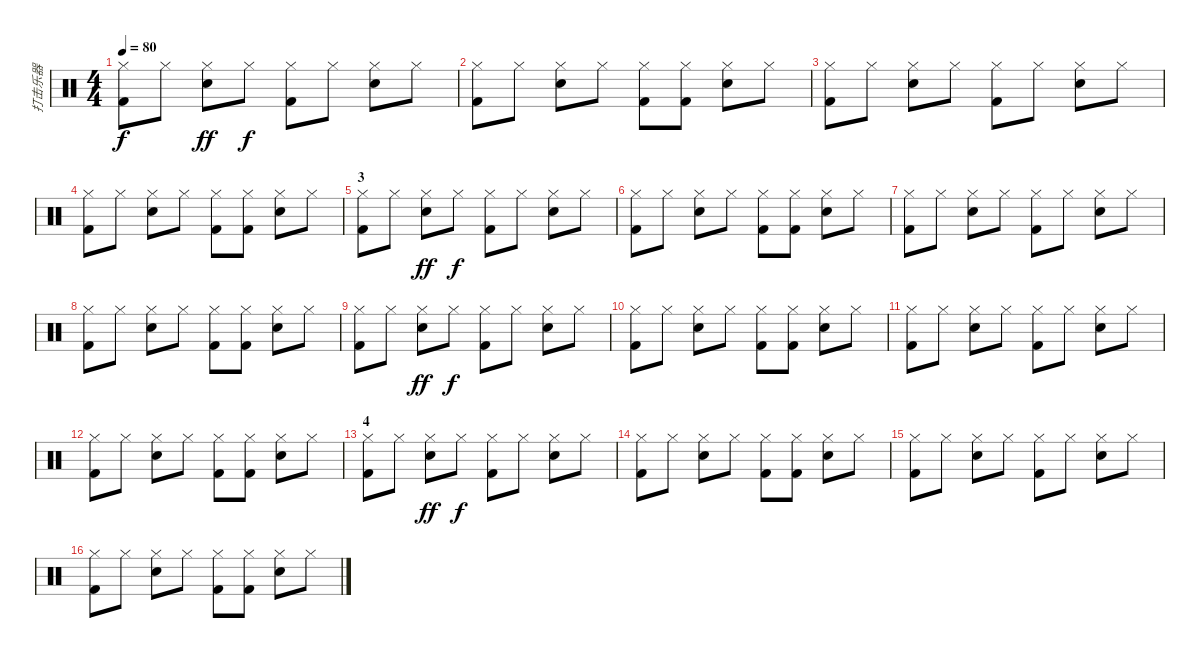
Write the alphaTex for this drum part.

\track ("打击乐器" "打击乐器") {instrument percussion}
\staff {score}
\articulation defaults
\ts (4 4)
\tempo 80
\clef neutral
\ks c
("Hi-Hat (closed)" "Kick (hit) 2").8{dy f} "Hi-Hat (closed)".8 ("Hi-Hat (closed)" "Snare (hit) 2").8{dy ff} "Hi-Hat (closed)".8{dy f} ("Hi-Hat (closed)" "Kick (hit) 2").8 "Hi-Hat (closed)".8 ("Hi-Hat (closed)" "Snare (hit) 2").8 "Hi-Hat (closed)".8 |
("Hi-Hat (closed)" "Kick (hit) 2").8 "Hi-Hat (closed)".8 ("Hi-Hat (closed)" "Snare (hit) 2").8 "Hi-Hat (closed)".8 ("Hi-Hat (closed)" "Kick (hit) 2").8 ("Hi-Hat (closed)" "Kick (hit) 2").8 ("Hi-Hat (closed)" "Snare (hit) 2").8 "Hi-Hat (closed)".8 |
("Hi-Hat (closed)" "Kick (hit) 2").8 "Hi-Hat (closed)".8 ("Hi-Hat (closed)" "Snare (hit) 2").8 "Hi-Hat (closed)".8 ("Hi-Hat (closed)" "Kick (hit) 2").8 "Hi-Hat (closed)".8 ("Hi-Hat (closed)" "Snare (hit) 2").8 "Hi-Hat (closed)".8 |
("Hi-Hat (closed)" "Kick (hit) 2").8 "Hi-Hat (closed)".8 ("Hi-Hat (closed)" "Snare (hit) 2").8 "Hi-Hat (closed)".8 ("Hi-Hat (closed)" "Kick (hit) 2").8 ("Hi-Hat (closed)" "Kick (hit) 2").8 ("Hi-Hat (closed)" "Snare (hit) 2").8 "Hi-Hat (closed)".8 |
\section ("" "3")
("Hi-Hat (closed)" "Kick (hit) 2").8 "Hi-Hat (closed)".8 ("Hi-Hat (closed)" "Snare (hit) 2").8{dy ff} "Hi-Hat (closed)".8{dy f} ("Hi-Hat (closed)" "Kick (hit) 2").8 "Hi-Hat (closed)".8 ("Hi-Hat (closed)" "Snare (hit) 2").8 "Hi-Hat (closed)".8 |
("Hi-Hat (closed)" "Kick (hit) 2").8 "Hi-Hat (closed)".8 ("Hi-Hat (closed)" "Snare (hit) 2").8 "Hi-Hat (closed)".8 ("Hi-Hat (closed)" "Kick (hit) 2").8 ("Hi-Hat (closed)" "Kick (hit) 2").8 ("Hi-Hat (closed)" "Snare (hit) 2").8 "Hi-Hat (closed)".8 |
("Hi-Hat (closed)" "Kick (hit) 2").8 "Hi-Hat (closed)".8 ("Hi-Hat (closed)" "Snare (hit) 2").8 "Hi-Hat (closed)".8 ("Hi-Hat (closed)" "Kick (hit) 2").8 "Hi-Hat (closed)".8 ("Hi-Hat (closed)" "Snare (hit) 2").8 "Hi-Hat (closed)".8 |
("Hi-Hat (closed)" "Kick (hit) 2").8 "Hi-Hat (closed)".8 ("Hi-Hat (closed)" "Snare (hit) 2").8 "Hi-Hat (closed)".8 ("Hi-Hat (closed)" "Kick (hit) 2").8 ("Hi-Hat (closed)" "Kick (hit) 2").8 ("Hi-Hat (closed)" "Snare (hit) 2").8 "Hi-Hat (closed)".8 |
("Hi-Hat (closed)" "Kick (hit) 2").8 "Hi-Hat (closed)".8 ("Hi-Hat (closed)" "Snare (hit) 2").8{dy ff} "Hi-Hat (closed)".8{dy f} ("Hi-Hat (closed)" "Kick (hit) 2").8 "Hi-Hat (closed)".8 ("Hi-Hat (closed)" "Snare (hit) 2").8 "Hi-Hat (closed)".8 |
("Hi-Hat (closed)" "Kick (hit) 2").8 "Hi-Hat (closed)".8 ("Hi-Hat (closed)" "Snare (hit) 2").8 "Hi-Hat (closed)".8 ("Hi-Hat (closed)" "Kick (hit) 2").8 ("Hi-Hat (closed)" "Kick (hit) 2").8 ("Hi-Hat (closed)" "Snare (hit) 2").8 "Hi-Hat (closed)".8 |
("Hi-Hat (closed)" "Kick (hit) 2").8 "Hi-Hat (closed)".8 ("Hi-Hat (closed)" "Snare (hit) 2").8 "Hi-Hat (closed)".8 ("Hi-Hat (closed)" "Kick (hit) 2").8 "Hi-Hat (closed)".8 ("Hi-Hat (closed)" "Snare (hit) 2").8 "Hi-Hat (closed)".8 |
("Hi-Hat (closed)" "Kick (hit) 2").8 "Hi-Hat (closed)".8 ("Hi-Hat (closed)" "Snare (hit) 2").8 "Hi-Hat (closed)".8 ("Hi-Hat (closed)" "Kick (hit) 2").8 ("Hi-Hat (closed)" "Kick (hit) 2").8 ("Hi-Hat (closed)" "Snare (hit) 2").8 "Hi-Hat (closed)".8 |
\section ("" "4")
("Hi-Hat (closed)" "Kick (hit) 2").8 "Hi-Hat (closed)".8 ("Hi-Hat (closed)" "Snare (hit) 2").8{dy ff} "Hi-Hat (closed)".8{dy f} ("Hi-Hat (closed)" "Kick (hit) 2").8 "Hi-Hat (closed)".8 ("Hi-Hat (closed)" "Snare (hit) 2").8 "Hi-Hat (closed)".8 |
("Hi-Hat (closed)" "Kick (hit) 2").8 "Hi-Hat (closed)".8 ("Hi-Hat (closed)" "Snare (hit) 2").8 "Hi-Hat (closed)".8 ("Hi-Hat (closed)" "Kick (hit) 2").8 ("Hi-Hat (closed)" "Kick (hit) 2").8 ("Hi-Hat (closed)" "Snare (hit) 2").8 "Hi-Hat (closed)".8 |
("Hi-Hat (closed)" "Kick (hit) 2").8 "Hi-Hat (closed)".8 ("Hi-Hat (closed)" "Snare (hit) 2").8 "Hi-Hat (closed)".8 ("Hi-Hat (closed)" "Kick (hit) 2").8 "Hi-Hat (closed)".8 ("Hi-Hat (closed)" "Snare (hit) 2").8 "Hi-Hat (closed)".8 |
("Hi-Hat (closed)" "Kick (hit) 2").8 "Hi-Hat (closed)".8 ("Hi-Hat (closed)" "Snare (hit) 2").8 "Hi-Hat (closed)".8 ("Hi-Hat (closed)" "Kick (hit) 2").8 ("Hi-Hat (closed)" "Kick (hit) 2").8 ("Hi-Hat (closed)" "Snare (hit) 2").8 "Hi-Hat (closed)".8
